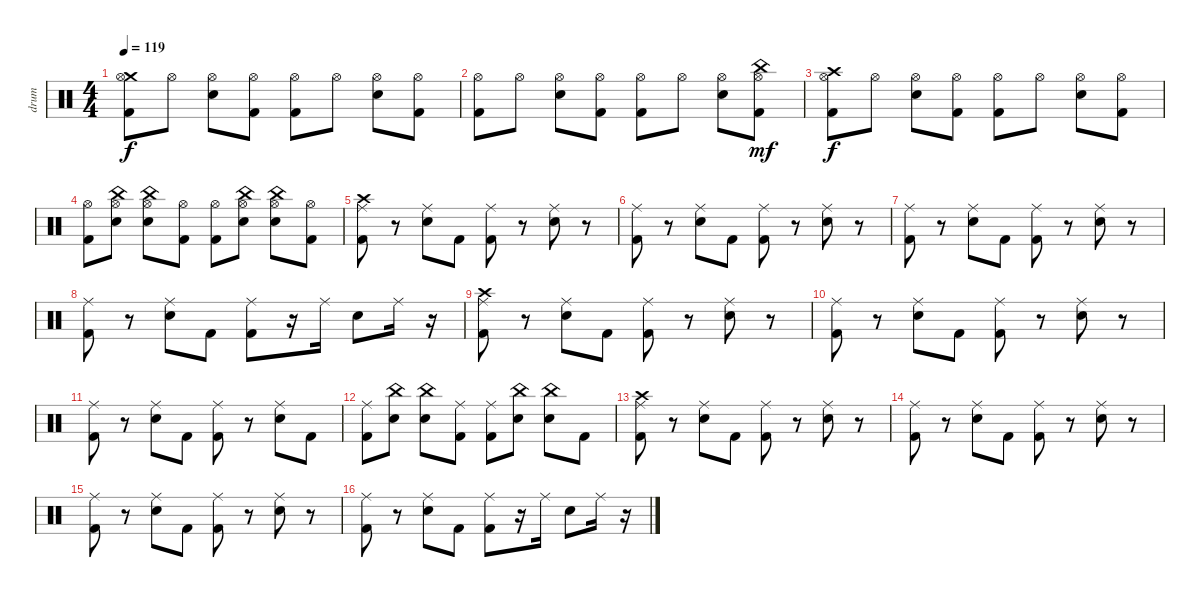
\track ("drum" "drum") {instrument percussion}
\staff {score}
\articulation defaults
\ts (4 4)
\tempo 119
\clef neutral
\ks c
("Crash medium (hit)" "Hi-Hat (open)" "Kick (hit) 2").8{dy f} "Hi-Hat (open)".8 ("Hi-Hat (open)" "Electric Snare (hit)").8 ("Hi-Hat (open)" "Kick (hit) 2").8 ("Hi-Hat (open)" "Kick (hit) 2").8 "Hi-Hat (open)".8 ("Hi-Hat (open)" "Electric Snare (hit)").8 ("Hi-Hat (open)" "Kick (hit) 2").8 |
("Hi-Hat (open)" "Kick (hit) 2").8 "Hi-Hat (open)".8 ("Hi-Hat (open)" "Electric Snare (hit)").8 ("Hi-Hat (open)" "Kick (hit) 2").8 ("Hi-Hat (open)" "Kick (hit) 2").8 "Hi-Hat (open)".8 ("Hi-Hat (open)" "Electric Snare (hit)").8 ("China (hit)" "Hi-Hat (open)" "Kick (hit) 2").8{dy mf} |
("Crash high (hit)" "Hi-Hat (open)" "Kick (hit) 2").8{dy f} "Hi-Hat (open)".8 ("Hi-Hat (open)" "Electric Snare (hit)").8 ("Hi-Hat (open)" "Kick (hit) 2").8 ("Hi-Hat (open)" "Kick (hit) 2").8 "Hi-Hat (open)".8 ("Hi-Hat (open)" "Electric Snare (hit)").8 ("Hi-Hat (open)" "Kick (hit) 2").8 |
("Hi-Hat (open)" "Kick (hit) 2").8 ("China (hit)" "Hi-Hat (open)" "Electric Snare (hit)").8 ("China (hit)" "Hi-Hat (open)" "Electric Snare (hit)").8 ("Hi-Hat (open)" "Kick (hit) 2").8 ("Hi-Hat (open)" "Kick (hit) 2").8 ("China (hit)" "Hi-Hat (open)" "Electric Snare (hit)").8 ("China (hit)" "Hi-Hat (open)" "Electric Snare (hit)").8 ("Hi-Hat (open)" "Kick (hit) 2").8 |
("Crash high (hit)" "Ride (middle)" "Kick (hit) 2").8 r.8 ("Ride (middle)" "Electric Snare (hit)").8 "Kick (hit) 2".8 ("Ride (middle)" "Kick (hit) 2").8 r.8 ("Ride (middle)" "Electric Snare (hit)").8 r.8 |
("Ride (middle)" "Kick (hit) 2").8 r.8 ("Ride (middle)" "Electric Snare (hit)").8 "Kick (hit) 2".8 ("Ride (middle)" "Kick (hit) 2").8 r.8 ("Ride (middle)" "Electric Snare (hit)").8 r.8 |
("Ride (middle)" "Kick (hit) 2").8 r.8 ("Ride (middle)" "Electric Snare (hit)").8 "Kick (hit) 2".8 ("Ride (middle)" "Kick (hit) 2").8 r.8 ("Ride (middle)" "Electric Snare (hit)").8 r.8 |
("Ride (middle)" "Kick (hit) 2").8 r.8 ("Ride (middle)" "Electric Snare (hit)").8 "Kick (hit) 2".8 ("Ride (middle)" "Kick (hit) 2").8 r.16 "Ride (middle)".16 "Electric Snare (hit)".8 "Ride (middle)".16 r.16 |
("Crash high (hit)" "Ride (middle)" "Kick (hit) 2").8 r.8 ("Ride (middle)" "Electric Snare (hit)").8 "Kick (hit) 2".8 ("Ride (middle)" "Kick (hit) 2").8 r.8 ("Ride (middle)" "Electric Snare (hit)").8 r.8 |
("Ride (middle)" "Kick (hit) 2").8 r.8 ("Ride (middle)" "Electric Snare (hit)").8 "Kick (hit) 2".8 ("Ride (middle)" "Kick (hit) 2").8 r.8 ("Ride (middle)" "Electric Snare (hit)").8 r.8 |
("Ride (middle)" "Kick (hit) 2").8 r.8 ("Ride (middle)" "Electric Snare (hit)").8 "Kick (hit) 2".8 ("Ride (middle)" "Kick (hit) 2").8 r.8 ("Ride (middle)" "Electric Snare (hit)").8 "Kick (hit) 2".8 |
("Ride (middle)" "Kick (hit) 2").8 ("China (hit)" "Electric Snare (hit)").8 ("China (hit)" "Electric Snare (hit)").8 ("Ride (middle)" "Kick (hit) 2").8 ("Ride (middle)" "Kick (hit) 2").8 ("China (hit)" "Electric Snare (hit)").8 ("China (hit)" "Electric Snare (hit)").8 "Kick (hit) 2".8 |
("Crash high (hit)" "Ride (middle)" "Kick (hit) 2").8 r.8 ("Ride (middle)" "Electric Snare (hit)").8 "Kick (hit) 2".8 ("Ride (middle)" "Kick (hit) 2").8 r.8 ("Ride (middle)" "Electric Snare (hit)").8 r.8 |
("Ride (middle)" "Kick (hit) 2").8 r.8 ("Ride (middle)" "Electric Snare (hit)").8 "Kick (hit) 2".8 ("Ride (middle)" "Kick (hit) 2").8 r.8 ("Ride (middle)" "Electric Snare (hit)").8 r.8 |
("Ride (middle)" "Kick (hit) 2").8 r.8 ("Ride (middle)" "Electric Snare (hit)").8 "Kick (hit) 2".8 ("Ride (middle)" "Kick (hit) 2").8 r.8 ("Ride (middle)" "Electric Snare (hit)").8 r.8 |
("Ride (middle)" "Kick (hit) 2").8 r.8 ("Ride (middle)" "Electric Snare (hit)").8 "Kick (hit) 2".8 ("Ride (middle)" "Kick (hit) 2").8 r.16 "Ride (middle)".16 "Electric Snare (hit)".8 "Ride (middle)".16 r.16
